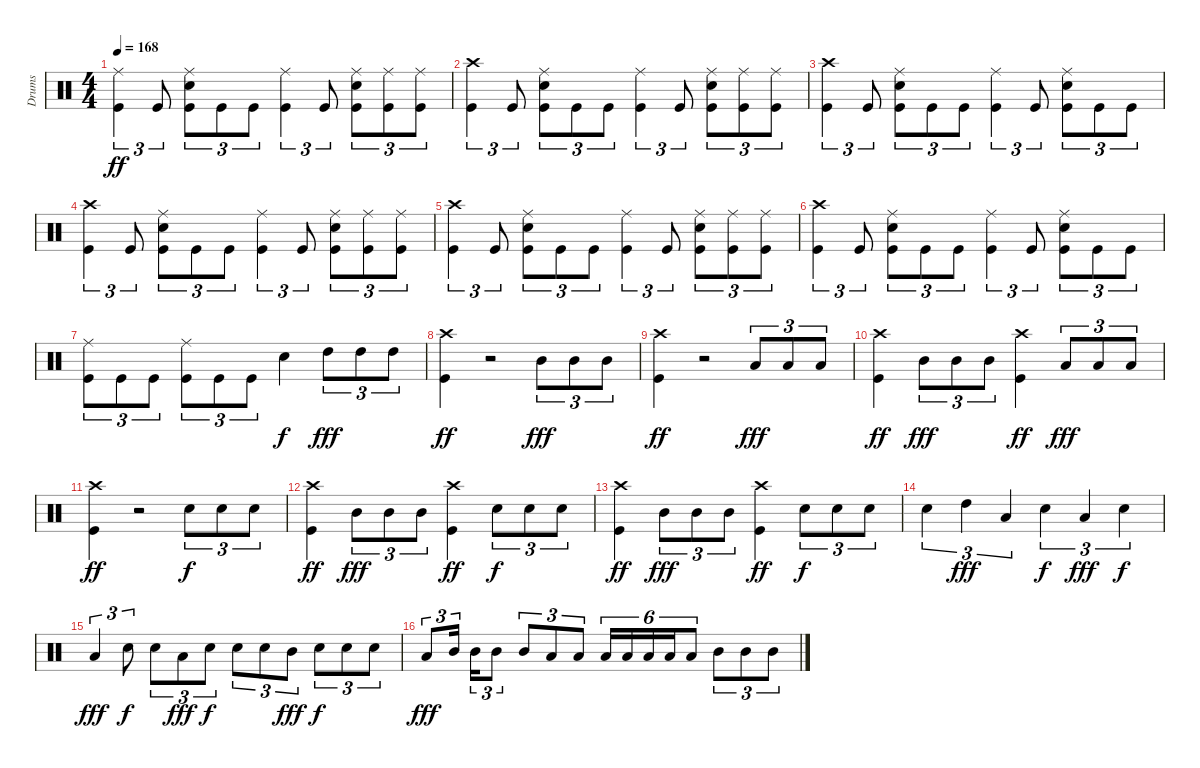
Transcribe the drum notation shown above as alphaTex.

\track ("Drums" "Drums") {instrument percussion}
\staff {score}
\articulation defaults
\ts (4 4)
\tempo 168
\clef neutral
\ks c
("Ride (middle)" "Kick (hit)").4{tu (3 2) dy ff} "Kick (hit)".8{tu (3 2)} ("Ride (middle)" "Electric Snare (hit)" "Kick (hit)").8{tu (3 2)} "Kick (hit)".8{tu (3 2)} "Kick (hit)".8{tu (3 2)} ("Ride (middle)" "Kick (hit)").4{tu (3 2)} "Kick (hit)".8{tu (3 2)} ("Ride (middle)" "Electric Snare (hit)" "Kick (hit)").8{tu (3 2)} ("Ride (middle)" "Kick (hit)").8{tu (3 2)} ("Ride (middle)" "Kick (hit)").8{tu (3 2)} |
("Crash high (hit)" "Kick (hit)").4{tu (3 2)} "Kick (hit)".8{tu (3 2)} ("Ride (middle)" "Electric Snare (hit)" "Kick (hit)").8{tu (3 2)} "Kick (hit)".8{tu (3 2)} "Kick (hit)".8{tu (3 2)} ("Ride (middle)" "Kick (hit)").4{tu (3 2)} "Kick (hit)".8{tu (3 2)} ("Ride (middle)" "Electric Snare (hit)" "Kick (hit)").8{tu (3 2)} ("Ride (middle)" "Kick (hit)").8{tu (3 2)} ("Ride (middle)" "Kick (hit)").8{tu (3 2)} |
("Crash high (hit)" "Kick (hit)").4{tu (3 2)} "Kick (hit)".8{tu (3 2)} ("Ride (middle)" "Electric Snare (hit)" "Kick (hit)").8{tu (3 2)} "Kick (hit)".8{tu (3 2)} "Kick (hit)".8{tu (3 2)} ("Ride (middle)" "Kick (hit)").4{tu (3 2)} "Kick (hit)".8{tu (3 2)} ("Ride (middle)" "Electric Snare (hit)" "Kick (hit)").8{tu (3 2)} "Kick (hit)".8{tu (3 2)} "Kick (hit)".8{tu (3 2)} |
("Crash high (hit)" "Kick (hit)").4{tu (3 2)} "Kick (hit)".8{tu (3 2)} ("Ride (middle)" "Electric Snare (hit)" "Kick (hit)").8{tu (3 2)} "Kick (hit)".8{tu (3 2)} "Kick (hit)".8{tu (3 2)} ("Ride (middle)" "Kick (hit)").4{tu (3 2)} "Kick (hit)".8{tu (3 2)} ("Ride (middle)" "Electric Snare (hit)" "Kick (hit)").8{tu (3 2)} ("Ride (middle)" "Kick (hit)").8{tu (3 2)} ("Ride (middle)" "Kick (hit)").8{tu (3 2)} |
("Crash high (hit)" "Kick (hit)").4{tu (3 2)} "Kick (hit)".8{tu (3 2)} ("Ride (middle)" "Electric Snare (hit)" "Kick (hit)").8{tu (3 2)} "Kick (hit)".8{tu (3 2)} "Kick (hit)".8{tu (3 2)} ("Ride (middle)" "Kick (hit)").4{tu (3 2)} "Kick (hit)".8{tu (3 2)} ("Ride (middle)" "Electric Snare (hit)" "Kick (hit)").8{tu (3 2)} ("Ride (middle)" "Kick (hit)").8{tu (3 2)} ("Ride (middle)" "Kick (hit)").8{tu (3 2)} |
("Crash high (hit)" "Kick (hit)").4{tu (3 2)} "Kick (hit)".8{tu (3 2)} ("Ride (middle)" "Electric Snare (hit)" "Kick (hit)").8{tu (3 2)} "Kick (hit)".8{tu (3 2)} "Kick (hit)".8{tu (3 2)} ("Ride (middle)" "Kick (hit)").4{tu (3 2)} "Kick (hit)".8{tu (3 2)} ("Ride (middle)" "Electric Snare (hit)" "Kick (hit)").8{tu (3 2)} "Kick (hit)".8{tu (3 2)} "Kick (hit)".8{tu (3 2)} |
("Ride (middle)" "Kick (hit)").8{tu (3 2)} "Kick (hit)".8{tu (3 2)} "Kick (hit)".8{tu (3 2)} ("Ride (middle)" "Kick (hit)").8{tu (3 2)} "Kick (hit)".8{tu (3 2)} "Kick (hit)".8{tu (3 2)} "Electric Snare (hit)".4{dy f} "High Tom (hit)".8{tu (3 2) dy fff} "High Tom (hit)".8{tu (3 2)} "High Tom (hit)".8{tu (3 2)} |
("Crash high (hit)" "Kick (hit)").4{dy ff} r.2 "Mid Tom (hit)".8{tu (3 2) dy fff} "Mid Tom (hit)".8{tu (3 2)} "Mid Tom (hit)".8{tu (3 2)} |
("Crash high (hit)" "Kick (hit)").4{dy ff} r.2 "Low Tom (hit)".8{tu (3 2) dy fff} "Low Tom (hit)".8{tu (3 2)} "Low Tom (hit)".8{tu (3 2)} |
("Crash high (hit)" "Kick (hit)").4{dy ff} "Mid Tom (hit)".8{tu (3 2) dy fff} "Mid Tom (hit)".8{tu (3 2)} "Mid Tom (hit)".8{tu (3 2)} ("Crash high (hit)" "Kick (hit)").4{dy ff} "Low Tom (hit)".8{tu (3 2) dy fff} "Low Tom (hit)".8{tu (3 2)} "Low Tom (hit)".8{tu (3 2)} |
("Crash high (hit)" "Kick (hit)").4{dy ff} r.2 "Electric Snare (hit)".8{tu (3 2) dy f} "Electric Snare (hit)".8{tu (3 2)} "Electric Snare (hit)".8{tu (3 2)} |
("Crash high (hit)" "Kick (hit)").4{dy ff} "Mid Tom (hit)".8{tu (3 2) dy fff} "Mid Tom (hit)".8{tu (3 2)} "Mid Tom (hit)".8{tu (3 2)} ("Crash high (hit)" "Kick (hit)").4{dy ff} "Electric Snare (hit)".8{tu (3 2) dy f} "Electric Snare (hit)".8{tu (3 2)} "Electric Snare (hit)".8{tu (3 2)} |
("Crash high (hit)" "Kick (hit)").4{dy ff} "Mid Tom (hit)".8{tu (3 2) dy fff} "Mid Tom (hit)".8{tu (3 2)} "Mid Tom (hit)".8{tu (3 2)} ("Crash high (hit)" "Kick (hit)").4{dy ff} "Electric Snare (hit)".8{tu (3 2) dy f} "Electric Snare (hit)".8{tu (3 2)} "Electric Snare (hit)".8{tu (3 2)} |
"Electric Snare (hit)".4{tu (3 2)} "High Tom (hit)".4{tu (3 2) dy fff} "Low Tom (hit)".4{tu (3 2)} "Electric Snare (hit)".4{tu (3 2) dy f} "Low Tom (hit)".4{tu (3 2) dy fff} "Electric Snare (hit)".4{tu (3 2) dy f} |
"Low Tom (hit)".4{tu (3 2) dy fff} "Electric Snare (hit)".8{tu (3 2) dy f} "Electric Snare (hit)".8{tu (3 2)} "Low Tom (hit)".8{tu (3 2) dy fff} "Electric Snare (hit)".8{tu (3 2) dy f} "Electric Snare (hit)".8{tu (3 2)} "Electric Snare (hit)".8{tu (3 2)} "Mid Tom (hit)".8{tu (3 2) dy fff} "Electric Snare (hit)".8{tu (3 2) dy f} "Electric Snare (hit)".8{tu (3 2)} "Electric Snare (hit)".8{tu (3 2)} |
"Low Tom (hit)".8{tu (3 2) dy fff} "Mid Tom (hit)".16{tu (3 2)} "Mid Tom (hit)".16{tu (3 2)} "Mid Tom (hit)".8{tu (3 2)} "Mid Tom (hit)".8{tu (3 2)} "Low Tom (hit)".8{tu (3 2)} "Low Tom (hit)".8{tu (3 2)} "Low Tom (hit)".16{tu (6 4)} "Low Tom (hit)".16{tu (6 4)} "Low Tom (hit)".16{tu (6 4)} "Low Tom (hit)".16{tu (6 4)} "Low Tom (hit)".8{tu (6 4)} "Mid Tom (hit)".8{tu (3 2)} "Mid Tom (hit)".8{tu (3 2)} "Mid Tom (hit)".8{tu (3 2)}
